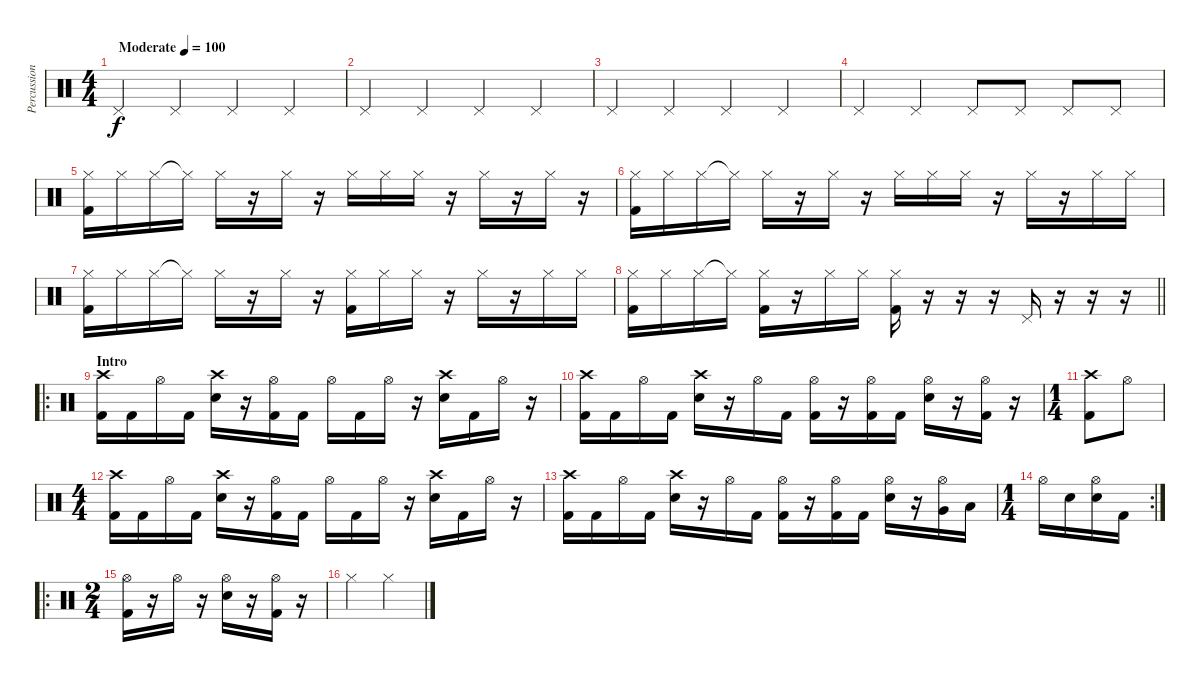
\track ("Percussion" "Percussion") {instrument percussion}
\staff {score}
\articulation defaults
\ts (4 4)
\tempo (100 "Moderate")
\clef neutral
\ks c "Pedal Hi-Hat (hit)".4{dy f} "Pedal Hi-Hat (hit)".4 "Pedal Hi-Hat (hit)".4 "Pedal Hi-Hat (hit)".4
|
"Pedal Hi-Hat (hit)".4 "Pedal Hi-Hat (hit)".4 "Pedal Hi-Hat (hit)".4 "Pedal Hi-Hat (hit)".4 |
"Pedal Hi-Hat (hit)".4 "Pedal Hi-Hat (hit)".4 "Pedal Hi-Hat (hit)".4 "Pedal Hi-Hat (hit)".4 |
"Pedal Hi-Hat (hit)".4 "Pedal Hi-Hat (hit)".4 "Pedal Hi-Hat (hit)".8 "Pedal Hi-Hat (hit)".8 "Pedal Hi-Hat (hit)".8 "Pedal Hi-Hat (hit)".8 |
("Hi-Hat (closed)" "Kick (hit) 2").16 "Hi-Hat (closed)".16 "Hi-Hat (closed)".16 "Hi-Hat (closed)"{t}.16 "Hi-Hat (closed)".16 r.16 "Hi-Hat (closed)".16 r.16 "Hi-Hat (closed)".16 "Hi-Hat (closed)".16 "Hi-Hat (closed)".16 r.16 "Hi-Hat (closed)".16 r.16 "Hi-Hat (closed)".16 r.16 |
("Hi-Hat (closed)" "Kick (hit) 2").16 "Hi-Hat (closed)".16 "Hi-Hat (closed)".16 "Hi-Hat (closed)"{t}.16 "Hi-Hat (closed)".16 r.16 "Hi-Hat (closed)".16 r.16 "Hi-Hat (closed)".16 "Hi-Hat (closed)".16 "Hi-Hat (closed)".16 r.16 "Hi-Hat (closed)".16 r.16 "Hi-Hat (closed)".16 "Hi-Hat (closed)".16 |
("Hi-Hat (closed)" "Kick (hit) 2").16 "Hi-Hat (closed)".16 "Hi-Hat (closed)".16 "Hi-Hat (closed)"{t}.16 "Hi-Hat (closed)".16 r.16 "Hi-Hat (closed)".16 r.16 ("Hi-Hat (closed)" "Kick (hit) 2").16 "Hi-Hat (closed)".16 "Hi-Hat (closed)".16 r.16 "Hi-Hat (closed)".16 r.16 "Hi-Hat (closed)".16 "Hi-Hat (closed)".16 |
\barLineRight lightlight
("Hi-Hat (closed)" "Kick (hit) 2").16 "Hi-Hat (closed)".16 "Hi-Hat (closed)".16 "Hi-Hat (closed)"{t}.16 ("Hi-Hat (closed)" "Kick (hit) 2").16 r.16 "Hi-Hat (closed)".16 "Hi-Hat (closed)".16 ("Hi-Hat (closed)" "Kick (hit) 2").16 r.16 r.16 r.16 "Pedal Hi-Hat (hit)".16 r.16 r.16 r.16 |
\ro
\section ("" "Intro")
("Crash high (hit)" "Kick (hit) 2").16 "Kick (hit) 2".16 "Hi-Hat (open)".16 "Kick (hit) 2".16 ("Crash high (hit)" "Electric Snare (hit)").16 r.16 ("Hi-Hat (open)" "Kick (hit) 2").16 "Kick (hit) 2".16 "Hi-Hat (open)".16 "Kick (hit) 2".16 "Hi-Hat (open)".16 r.16 ("Crash high (hit)" "Electric Snare (hit)").16 "Kick (hit) 2".16 "Hi-Hat (open)".16 r.16 |
("Crash high (hit)" "Kick (hit) 2").16 "Kick (hit) 2".16 "Hi-Hat (open)".16 "Kick (hit) 2".16 ("Crash high (hit)" "Electric Snare (hit)").16 r.16 "Hi-Hat (open)".16 "Kick (hit) 2".16 ("Hi-Hat (open)" "Kick (hit) 2").16 r.16 ("Hi-Hat (open)" "Kick (hit) 2").16 "Kick (hit) 2".16 ("Hi-Hat (open)" "Electric Snare (hit)").16 r.16 ("Hi-Hat (open)" "Kick (hit) 2").16 r.16 |
\ts (1 4)
("Kick (hit) 2" "Crash high (hit)").8 "Hi-Hat (open)".8 |
\ts (4 4)
("Crash high (hit)" "Kick (hit) 2").16 "Kick (hit) 2".16 "Hi-Hat (open)".16 "Kick (hit) 2".16 ("Crash high (hit)" "Electric Snare (hit)").16 r.16 ("Hi-Hat (open)" "Kick (hit) 2").16 "Kick (hit) 2".16 "Hi-Hat (open)".16 "Kick (hit) 2".16 "Hi-Hat (open)".16 r.16 ("Crash high (hit)" "Electric Snare (hit)").16 "Kick (hit) 2".16 "Hi-Hat (open)".16 r.16 |
("Crash high (hit)" "Kick (hit) 2").16 "Kick (hit) 2".16 "Hi-Hat (open)".16 "Kick (hit) 2".16 ("Crash high (hit)" "Electric Snare (hit)").16 r.16 "Hi-Hat (open)".16 "Kick (hit) 2".16 ("Hi-Hat (open)" "Kick (hit) 2").16 r.16 ("Hi-Hat (open)" "Kick (hit) 2").16 "Kick (hit) 2".16 ("Hi-Hat (open)" "Electric Snare (hit)").16 r.16 ("Hi-Hat (open)" "Very Low Tom (hit)").16 "Low Floor Tom (hit)".16 |
\rc 2
\ts (1 4)
"Hi-Hat (open)".16 "Electric Snare (hit)".16 ("Hi-Hat (open)" "Electric Snare (hit)").16 "Kick (hit) 2".16 |
\ro
\ts (2 4)
("Kick (hit) 2" "Hi-Hat (open)").16 r.16 "Hi-Hat (open)".16 r.16 ("Electric Snare (hit)" "Hi-Hat (open)").16 r.16 ("Kick (hit) 2" "Hi-Hat (open)").16 r.16 |
"Hi-Hat (closed)".4 "Hi-Hat (closed)".4
